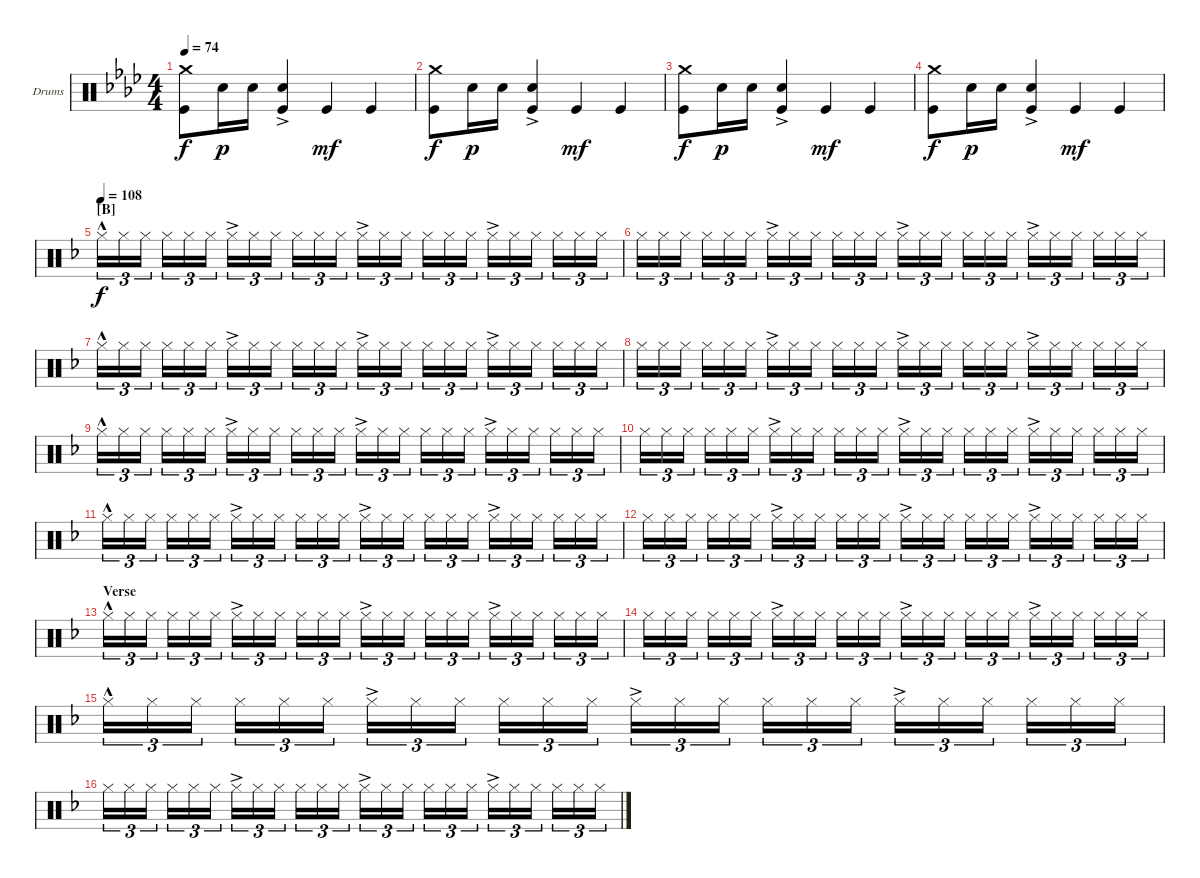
\defaultSystemsLayout 4
\bracketExtendMode groupsimilarinstruments
\firstSystemTrackNameOrientation horizontal
\otherSystemsTrackNameOrientation horizontal
\track ("Drumkit" "Drums") {instrument percussion}
\staff {score}
\articulation defaults
\ts (4 4)
\tempo 74
\clef neutral
\ks ab
("Kick (hit)" "Crash medium (hit)").8{dy f} "Snare (hit) 2".16{dy p} "Snare (hit) 2".16 ("Kick (hit)"{ac} "Snare (hit) 2").4 "Kick (hit)".4{dy mf} "Kick (hit)".4 |
("Kick (hit)" "Crash medium (hit)").8{dy f} "Snare (hit) 2".16{dy p} "Snare (hit) 2".16 ("Kick (hit)"{ac} "Snare (hit) 2").4 "Kick (hit)".4{dy mf} "Kick (hit)".4 |
("Kick (hit)" "Crash medium (hit)").8{dy f} "Snare (hit) 2".16{dy p} "Snare (hit) 2".16 ("Kick (hit)"{ac} "Snare (hit) 2").4 "Kick (hit)".4{dy mf} "Kick (hit)".4 |
("Kick (hit)" "Crash medium (hit)").8{dy f} "Snare (hit) 2".16{dy p} "Snare (hit) 2".16 ("Kick (hit)"{ac} "Snare (hit) 2").4 "Kick (hit)".4{dy mf} "Kick (hit)".4 |
\section ("B" "")
\tempo 108
\ks f "Hi-Hat (closed)"{hac}.16{tu (3 2) dy f} "Hi-Hat (closed)".16{tu (3 2)} "Hi-Hat (closed)".16{tu (3 2)} "Hi-Hat (closed)".16{tu (3 2)} "Hi-Hat (closed)".16{tu (3 2)} "Hi-Hat (closed)".16{tu (3 2)} "Hi-Hat (closed)"{ac}.16{tu (3 2)} "Hi-Hat (closed)".16{tu (3 2)} "Hi-Hat (closed)".16{tu (3 2)} "Hi-Hat (closed)".16{tu (3 2)} "Hi-Hat (closed)".16{tu (3 2)} "Hi-Hat (closed)".16{tu (3 2)} "Hi-Hat (closed)"{ac}.16{tu (3 2)} "Hi-Hat (closed)".16{tu (3 2)} "Hi-Hat (closed)".16{tu (3 2)} "Hi-Hat (closed)".16{tu (3 2)} "Hi-Hat (closed)".16{tu (3 2)} "Hi-Hat (closed)".16{tu (3 2)} "Hi-Hat (closed)"{ac}.16{tu (3 2)} "Hi-Hat (closed)".16{tu (3 2)} "Hi-Hat (closed)".16{tu (3 2)} "Hi-Hat (closed)".16{tu (3 2)} "Hi-Hat (closed)".16{tu (3 2)} "Hi-Hat (closed)".16{tu (3 2)}
|
"Hi-Hat (closed)".16{tu (3 2)} "Hi-Hat (closed)".16{tu (3 2)} "Hi-Hat (closed)".16{tu (3 2)} "Hi-Hat (closed)".16{tu (3 2)} "Hi-Hat (closed)".16{tu (3 2)} "Hi-Hat (closed)".16{tu (3 2)} "Hi-Hat (closed)"{ac}.16{tu (3 2)} "Hi-Hat (closed)".16{tu (3 2)} "Hi-Hat (closed)".16{tu (3 2)} "Hi-Hat (closed)".16{tu (3 2)} "Hi-Hat (closed)".16{tu (3 2)} "Hi-Hat (closed)".16{tu (3 2)} "Hi-Hat (closed)"{ac}.16{tu (3 2)} "Hi-Hat (closed)".16{tu (3 2)} "Hi-Hat (closed)".16{tu (3 2)} "Hi-Hat (closed)".16{tu (3 2)} "Hi-Hat (closed)".16{tu (3 2)} "Hi-Hat (closed)".16{tu (3 2)} "Hi-Hat (closed)"{ac}.16{tu (3 2)} "Hi-Hat (closed)".16{tu (3 2)} "Hi-Hat (closed)".16{tu (3 2)} "Hi-Hat (closed)".16{tu (3 2)} "Hi-Hat (closed)".16{tu (3 2)} "Hi-Hat (closed)".16{tu (3 2)} |
"Hi-Hat (closed)"{hac}.16{tu (3 2)} "Hi-Hat (closed)".16{tu (3 2)} "Hi-Hat (closed)".16{tu (3 2)} "Hi-Hat (closed)".16{tu (3 2)} "Hi-Hat (closed)".16{tu (3 2)} "Hi-Hat (closed)".16{tu (3 2)} "Hi-Hat (closed)"{ac}.16{tu (3 2)} "Hi-Hat (closed)".16{tu (3 2)} "Hi-Hat (closed)".16{tu (3 2)} "Hi-Hat (closed)".16{tu (3 2)} "Hi-Hat (closed)".16{tu (3 2)} "Hi-Hat (closed)".16{tu (3 2)} "Hi-Hat (closed)"{ac}.16{tu (3 2)} "Hi-Hat (closed)".16{tu (3 2)} "Hi-Hat (closed)".16{tu (3 2)} "Hi-Hat (closed)".16{tu (3 2)} "Hi-Hat (closed)".16{tu (3 2)} "Hi-Hat (closed)".16{tu (3 2)} "Hi-Hat (closed)"{ac}.16{tu (3 2)} "Hi-Hat (closed)".16{tu (3 2)} "Hi-Hat (closed)".16{tu (3 2)} "Hi-Hat (closed)".16{tu (3 2)} "Hi-Hat (closed)".16{tu (3 2)} "Hi-Hat (closed)".16{tu (3 2)} |
"Hi-Hat (closed)".16{tu (3 2)} "Hi-Hat (closed)".16{tu (3 2)} "Hi-Hat (closed)".16{tu (3 2)} "Hi-Hat (closed)".16{tu (3 2)} "Hi-Hat (closed)".16{tu (3 2)} "Hi-Hat (closed)".16{tu (3 2)} "Hi-Hat (closed)"{ac}.16{tu (3 2)} "Hi-Hat (closed)".16{tu (3 2)} "Hi-Hat (closed)".16{tu (3 2)} "Hi-Hat (closed)".16{tu (3 2)} "Hi-Hat (closed)".16{tu (3 2)} "Hi-Hat (closed)".16{tu (3 2)} "Hi-Hat (closed)"{ac}.16{tu (3 2)} "Hi-Hat (closed)".16{tu (3 2)} "Hi-Hat (closed)".16{tu (3 2)} "Hi-Hat (closed)".16{tu (3 2)} "Hi-Hat (closed)".16{tu (3 2)} "Hi-Hat (closed)".16{tu (3 2)} "Hi-Hat (closed)"{ac}.16{tu (3 2)} "Hi-Hat (closed)".16{tu (3 2)} "Hi-Hat (closed)".16{tu (3 2)} "Hi-Hat (closed)".16{tu (3 2)} "Hi-Hat (closed)".16{tu (3 2)} "Hi-Hat (closed)".16{tu (3 2)} |
"Hi-Hat (closed)"{hac}.16{tu (3 2)} "Hi-Hat (closed)".16{tu (3 2)} "Hi-Hat (closed)".16{tu (3 2)} "Hi-Hat (closed)".16{tu (3 2)} "Hi-Hat (closed)".16{tu (3 2)} "Hi-Hat (closed)".16{tu (3 2)} "Hi-Hat (closed)"{ac}.16{tu (3 2)} "Hi-Hat (closed)".16{tu (3 2)} "Hi-Hat (closed)".16{tu (3 2)} "Hi-Hat (closed)".16{tu (3 2)} "Hi-Hat (closed)".16{tu (3 2)} "Hi-Hat (closed)".16{tu (3 2)} "Hi-Hat (closed)"{ac}.16{tu (3 2)} "Hi-Hat (closed)".16{tu (3 2)} "Hi-Hat (closed)".16{tu (3 2)} "Hi-Hat (closed)".16{tu (3 2)} "Hi-Hat (closed)".16{tu (3 2)} "Hi-Hat (closed)".16{tu (3 2)} "Hi-Hat (closed)"{ac}.16{tu (3 2)} "Hi-Hat (closed)".16{tu (3 2)} "Hi-Hat (closed)".16{tu (3 2)} "Hi-Hat (closed)".16{tu (3 2)} "Hi-Hat (closed)".16{tu (3 2)} "Hi-Hat (closed)".16{tu (3 2)} |
"Hi-Hat (closed)".16{tu (3 2)} "Hi-Hat (closed)".16{tu (3 2)} "Hi-Hat (closed)".16{tu (3 2)} "Hi-Hat (closed)".16{tu (3 2)} "Hi-Hat (closed)".16{tu (3 2)} "Hi-Hat (closed)".16{tu (3 2)} "Hi-Hat (closed)"{ac}.16{tu (3 2)} "Hi-Hat (closed)".16{tu (3 2)} "Hi-Hat (closed)".16{tu (3 2)} "Hi-Hat (closed)".16{tu (3 2)} "Hi-Hat (closed)".16{tu (3 2)} "Hi-Hat (closed)".16{tu (3 2)} "Hi-Hat (closed)"{ac}.16{tu (3 2)} "Hi-Hat (closed)".16{tu (3 2)} "Hi-Hat (closed)".16{tu (3 2)} "Hi-Hat (closed)".16{tu (3 2)} "Hi-Hat (closed)".16{tu (3 2)} "Hi-Hat (closed)".16{tu (3 2)} "Hi-Hat (closed)"{ac}.16{tu (3 2)} "Hi-Hat (closed)".16{tu (3 2)} "Hi-Hat (closed)".16{tu (3 2)} "Hi-Hat (closed)".16{tu (3 2)} "Hi-Hat (closed)".16{tu (3 2)} "Hi-Hat (closed)".16{tu (3 2)} |
"Hi-Hat (closed)"{hac}.16{tu (3 2)} "Hi-Hat (closed)".16{tu (3 2)} "Hi-Hat (closed)".16{tu (3 2)} "Hi-Hat (closed)".16{tu (3 2)} "Hi-Hat (closed)".16{tu (3 2)} "Hi-Hat (closed)".16{tu (3 2)} "Hi-Hat (closed)"{ac}.16{tu (3 2)} "Hi-Hat (closed)".16{tu (3 2)} "Hi-Hat (closed)".16{tu (3 2)} "Hi-Hat (closed)".16{tu (3 2)} "Hi-Hat (closed)".16{tu (3 2)} "Hi-Hat (closed)".16{tu (3 2)} "Hi-Hat (closed)"{ac}.16{tu (3 2)} "Hi-Hat (closed)".16{tu (3 2)} "Hi-Hat (closed)".16{tu (3 2)} "Hi-Hat (closed)".16{tu (3 2)} "Hi-Hat (closed)".16{tu (3 2)} "Hi-Hat (closed)".16{tu (3 2)} "Hi-Hat (closed)"{ac}.16{tu (3 2)} "Hi-Hat (closed)".16{tu (3 2)} "Hi-Hat (closed)".16{tu (3 2)} "Hi-Hat (closed)".16{tu (3 2)} "Hi-Hat (closed)".16{tu (3 2)} "Hi-Hat (closed)".16{tu (3 2)} |
"Hi-Hat (closed)".16{tu (3 2)} "Hi-Hat (closed)".16{tu (3 2)} "Hi-Hat (closed)".16{tu (3 2)} "Hi-Hat (closed)".16{tu (3 2)} "Hi-Hat (closed)".16{tu (3 2)} "Hi-Hat (closed)".16{tu (3 2)} "Hi-Hat (closed)"{ac}.16{tu (3 2)} "Hi-Hat (closed)".16{tu (3 2)} "Hi-Hat (closed)".16{tu (3 2)} "Hi-Hat (closed)".16{tu (3 2)} "Hi-Hat (closed)".16{tu (3 2)} "Hi-Hat (closed)".16{tu (3 2)} "Hi-Hat (closed)"{ac}.16{tu (3 2)} "Hi-Hat (closed)".16{tu (3 2)} "Hi-Hat (closed)".16{tu (3 2)} "Hi-Hat (closed)".16{tu (3 2)} "Hi-Hat (closed)".16{tu (3 2)} "Hi-Hat (closed)".16{tu (3 2)} "Hi-Hat (closed)"{ac}.16{tu (3 2)} "Hi-Hat (closed)".16{tu (3 2)} "Hi-Hat (closed)".16{tu (3 2)} "Hi-Hat (closed)".16{tu (3 2)} "Hi-Hat (closed)".16{tu (3 2)} "Hi-Hat (closed)".16{tu (3 2)} |
\section ("" "Verse")
"Hi-Hat (closed)"{hac}.16{tu (3 2)} "Hi-Hat (closed)".16{tu (3 2)} "Hi-Hat (closed)".16{tu (3 2)} "Hi-Hat (closed)".16{tu (3 2)} "Hi-Hat (closed)".16{tu (3 2)} "Hi-Hat (closed)".16{tu (3 2)} "Hi-Hat (closed)"{ac}.16{tu (3 2)} "Hi-Hat (closed)".16{tu (3 2)} "Hi-Hat (closed)".16{tu (3 2)} "Hi-Hat (closed)".16{tu (3 2)} "Hi-Hat (closed)".16{tu (3 2)} "Hi-Hat (closed)".16{tu (3 2)} "Hi-Hat (closed)"{ac}.16{tu (3 2)} "Hi-Hat (closed)".16{tu (3 2)} "Hi-Hat (closed)".16{tu (3 2)} "Hi-Hat (closed)".16{tu (3 2)} "Hi-Hat (closed)".16{tu (3 2)} "Hi-Hat (closed)".16{tu (3 2)} "Hi-Hat (closed)"{ac}.16{tu (3 2)} "Hi-Hat (closed)".16{tu (3 2)} "Hi-Hat (closed)".16{tu (3 2)} "Hi-Hat (closed)".16{tu (3 2)} "Hi-Hat (closed)".16{tu (3 2)} "Hi-Hat (closed)".16{tu (3 2)} |
"Hi-Hat (closed)".16{tu (3 2)} "Hi-Hat (closed)".16{tu (3 2)} "Hi-Hat (closed)".16{tu (3 2)} "Hi-Hat (closed)".16{tu (3 2)} "Hi-Hat (closed)".16{tu (3 2)} "Hi-Hat (closed)".16{tu (3 2)} "Hi-Hat (closed)"{ac}.16{tu (3 2)} "Hi-Hat (closed)".16{tu (3 2)} "Hi-Hat (closed)".16{tu (3 2)} "Hi-Hat (closed)".16{tu (3 2)} "Hi-Hat (closed)".16{tu (3 2)} "Hi-Hat (closed)".16{tu (3 2)} "Hi-Hat (closed)"{ac}.16{tu (3 2)} "Hi-Hat (closed)".16{tu (3 2)} "Hi-Hat (closed)".16{tu (3 2)} "Hi-Hat (closed)".16{tu (3 2)} "Hi-Hat (closed)".16{tu (3 2)} "Hi-Hat (closed)".16{tu (3 2)} "Hi-Hat (closed)"{ac}.16{tu (3 2)} "Hi-Hat (closed)".16{tu (3 2)} "Hi-Hat (closed)".16{tu (3 2)} "Hi-Hat (closed)".16{tu (3 2)} "Hi-Hat (closed)".16{tu (3 2)} "Hi-Hat (closed)".16{tu (3 2)} |
"Hi-Hat (closed)"{hac}.16{tu (3 2)} "Hi-Hat (closed)".16{tu (3 2)} "Hi-Hat (closed)".16{tu (3 2)} "Hi-Hat (closed)".16{tu (3 2)} "Hi-Hat (closed)".16{tu (3 2)} "Hi-Hat (closed)".16{tu (3 2)} "Hi-Hat (closed)"{ac}.16{tu (3 2)} "Hi-Hat (closed)".16{tu (3 2)} "Hi-Hat (closed)".16{tu (3 2)} "Hi-Hat (closed)".16{tu (3 2)} "Hi-Hat (closed)".16{tu (3 2)} "Hi-Hat (closed)".16{tu (3 2)} "Hi-Hat (closed)"{ac}.16{tu (3 2)} "Hi-Hat (closed)".16{tu (3 2)} "Hi-Hat (closed)".16{tu (3 2)} "Hi-Hat (closed)".16{tu (3 2)} "Hi-Hat (closed)".16{tu (3 2)} "Hi-Hat (closed)".16{tu (3 2)} "Hi-Hat (closed)"{ac}.16{tu (3 2)} "Hi-Hat (closed)".16{tu (3 2)} "Hi-Hat (closed)".16{tu (3 2)} "Hi-Hat (closed)".16{tu (3 2)} "Hi-Hat (closed)".16{tu (3 2)} "Hi-Hat (closed)".16{tu (3 2)} |
"Hi-Hat (closed)".16{tu (3 2)} "Hi-Hat (closed)".16{tu (3 2)} "Hi-Hat (closed)".16{tu (3 2)} "Hi-Hat (closed)".16{tu (3 2)} "Hi-Hat (closed)".16{tu (3 2)} "Hi-Hat (closed)".16{tu (3 2)} "Hi-Hat (closed)"{ac}.16{tu (3 2)} "Hi-Hat (closed)".16{tu (3 2)} "Hi-Hat (closed)".16{tu (3 2)} "Hi-Hat (closed)".16{tu (3 2)} "Hi-Hat (closed)".16{tu (3 2)} "Hi-Hat (closed)".16{tu (3 2)} "Hi-Hat (closed)"{ac}.16{tu (3 2)} "Hi-Hat (closed)".16{tu (3 2)} "Hi-Hat (closed)".16{tu (3 2)} "Hi-Hat (closed)".16{tu (3 2)} "Hi-Hat (closed)".16{tu (3 2)} "Hi-Hat (closed)".16{tu (3 2)} "Hi-Hat (closed)"{ac}.16{tu (3 2)} "Hi-Hat (closed)".16{tu (3 2)} "Hi-Hat (closed)".16{tu (3 2)} "Hi-Hat (closed)".16{tu (3 2)} "Hi-Hat (closed)".16{tu (3 2)} "Hi-Hat (closed)".16{tu (3 2)}
